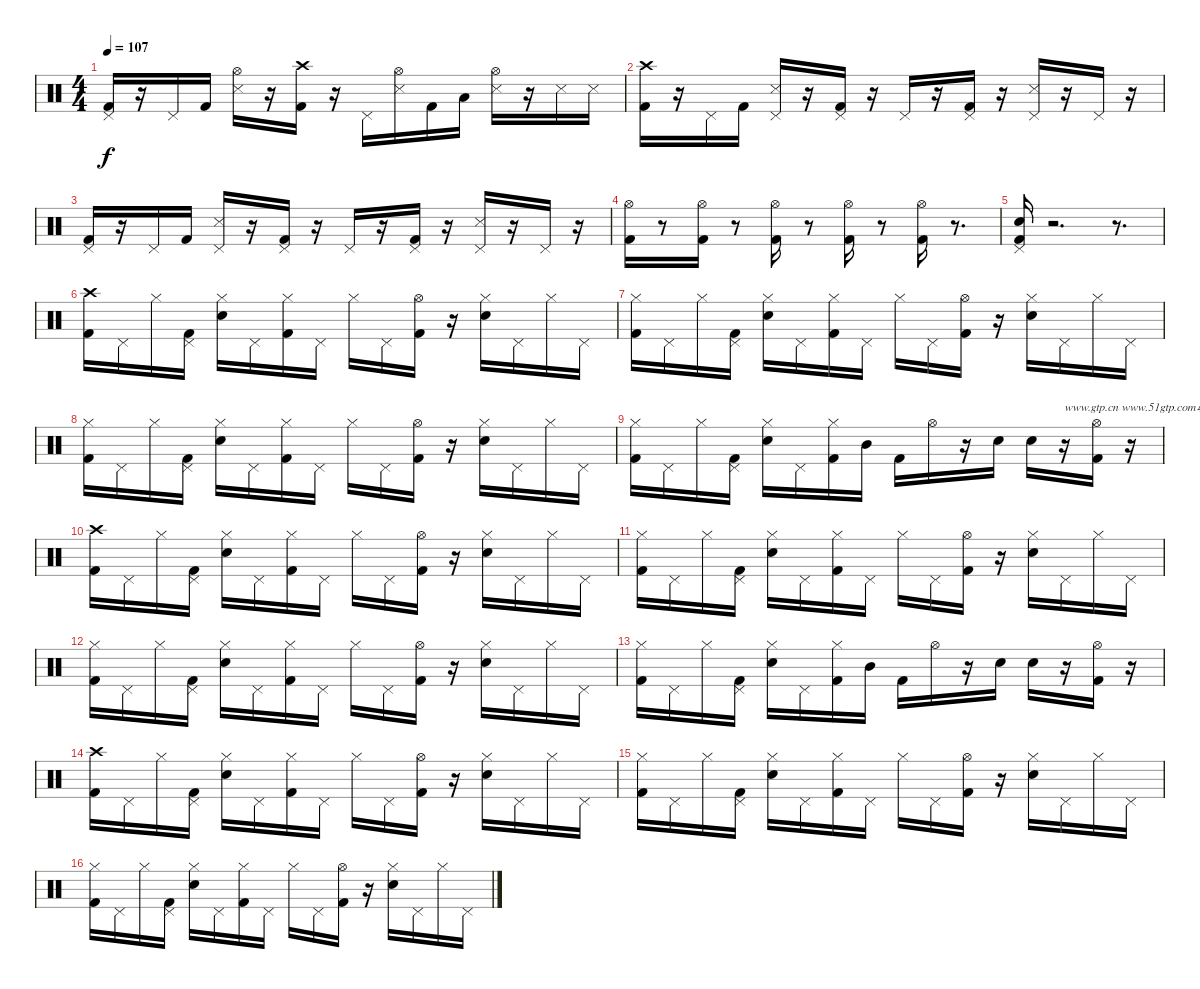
\track "" {instrument percussion}
\staff {score}
\articulation defaults
\ts (4 4)
\tempo 107
\clef neutral
\ks c
("Pedal Hi-Hat (hit)" "Kick (hit) 2").16{dy f} r.16 "Pedal Hi-Hat (hit)".16 "Kick (hit) 2".16 ("Hi-Hat (open)" "Snare (side stick) 3").16 r.16 ("Crash high (hit)" "Kick (hit) 2").16 r.16 "Pedal Hi-Hat (hit)".16 ("Hi-Hat (open)" "Snare (side stick) 3").16 "Kick (hit) 2".16 "Low Tom (hit)".16 ("Hi-Hat (open)" "Snare (side stick) 3").16 r.16 "Snare (side stick) 3".16 "Snare (side stick) 3".16 |
("Crash high (hit)" "Kick (hit) 2").16 r.16 "Pedal Hi-Hat (hit)".16 "Kick (hit) 2".16 ("Pedal Hi-Hat (hit)" "Snare (side stick) 3").16 r.16 ("Pedal Hi-Hat (hit)" "Kick (hit) 2").16 r.16 "Pedal Hi-Hat (hit)".16 r.16 ("Pedal Hi-Hat (hit)" "Kick (hit) 2").16 r.16 ("Pedal Hi-Hat (hit)" "Snare (side stick) 3").16 r.16 "Pedal Hi-Hat (hit)".16 r.16 |
("Pedal Hi-Hat (hit)" "Kick (hit) 2").16 r.16 "Pedal Hi-Hat (hit)".16 "Kick (hit) 2".16 ("Pedal Hi-Hat (hit)" "Snare (side stick) 3").16 r.16 ("Pedal Hi-Hat (hit)" "Kick (hit) 2").16 r.16 "Pedal Hi-Hat (hit)".16 r.16 ("Pedal Hi-Hat (hit)" "Kick (hit) 2").16 r.16 ("Pedal Hi-Hat (hit)" "Snare (side stick) 3").16 r.16 "Pedal Hi-Hat (hit)".16 r.16 |
("Hi-Hat (open)" "Kick (hit) 2").16 r.8 ("Hi-Hat (open)" "Kick (hit) 2").16 r.8 ("Hi-Hat (open)" "Kick (hit) 2").16 r.8 ("Hi-Hat (open)" "Kick (hit) 2").16 r.8 ("Hi-Hat (open)" "Kick (hit) 2").16 r.8{d} |
("Pedal Hi-Hat (hit)" "Electric Snare (hit)" "Kick (hit) 2").16 r.2{d} r.8{d} |
("Crash high (hit)" "Kick (hit) 2").16 "Pedal Hi-Hat (hit)".16 "Hi-Hat (closed)".16 ("Pedal Hi-Hat (hit)" "Kick (hit) 2").16 ("Hi-Hat (closed)" "Electric Snare (hit)").16 "Pedal Hi-Hat (hit)".16 ("Hi-Hat (closed)" "Kick (hit) 2").16 "Pedal Hi-Hat (hit)".16 "Hi-Hat (closed)".16 "Pedal Hi-Hat (hit)".16 ("Hi-Hat (open)" "Kick (hit) 2").16 r.16 ("Hi-Hat (closed)" "Electric Snare (hit)").16 "Pedal Hi-Hat (hit)".16 "Hi-Hat (closed)".16 "Pedal Hi-Hat (hit)".16 |
("Hi-Hat (closed)" "Kick (hit) 2").16 "Pedal Hi-Hat (hit)".16 "Hi-Hat (closed)".16 ("Pedal Hi-Hat (hit)" "Kick (hit) 2").16 ("Hi-Hat (closed)" "Electric Snare (hit)").16 "Pedal Hi-Hat (hit)".16 ("Hi-Hat (closed)" "Kick (hit) 2").16 "Pedal Hi-Hat (hit)".16 "Hi-Hat (closed)".16 "Pedal Hi-Hat (hit)".16 ("Hi-Hat (open)" "Kick (hit) 2").16 r.16 ("Hi-Hat (closed)" "Electric Snare (hit)").16 "Pedal Hi-Hat (hit)".16 "Hi-Hat (closed)".16 "Pedal Hi-Hat (hit)".16 |
("Hi-Hat (closed)" "Kick (hit) 2").16 "Pedal Hi-Hat (hit)".16 "Hi-Hat (closed)".16 ("Pedal Hi-Hat (hit)" "Kick (hit) 2").16 ("Hi-Hat (closed)" "Electric Snare (hit)").16 "Pedal Hi-Hat (hit)".16 ("Hi-Hat (closed)" "Kick (hit) 2").16 "Pedal Hi-Hat (hit)".16 "Hi-Hat (closed)".16 "Pedal Hi-Hat (hit)".16 ("Hi-Hat (open)" "Kick (hit) 2").16 r.16 ("Hi-Hat (closed)" "Electric Snare (hit)").16 "Pedal Hi-Hat (hit)".16 "Hi-Hat (closed)".16 "Pedal Hi-Hat (hit)".16 |
("Hi-Hat (closed)" "Kick (hit) 2").16 "Pedal Hi-Hat (hit)".16 "Hi-Hat (closed)".16 ("Pedal Hi-Hat (hit)" "Kick (hit) 2").16 ("Hi-Hat (closed)" "Electric Snare (hit)").16 "Pedal Hi-Hat (hit)".16 ("Hi-Hat (closed)" "Kick (hit) 2").16 "Mid Tom (hit)".16 "Kick (hit) 2".16 "Hi-Hat (open)".16 r.16 "Electric Snare (hit)".16 "Electric Snare (hit)".16 r.16{txt "www.gtp.cn www.51gtp.com联合为您提供优秀的GTP!"} ("Hi-Hat (open)" "Kick (hit) 2").16 r.16 |
("Crash high (hit)" "Kick (hit) 2").16 "Pedal Hi-Hat (hit)".16 "Hi-Hat (closed)".16 ("Pedal Hi-Hat (hit)" "Kick (hit) 2").16 ("Hi-Hat (closed)" "Electric Snare (hit)").16 "Pedal Hi-Hat (hit)".16 ("Hi-Hat (closed)" "Kick (hit) 2").16 "Pedal Hi-Hat (hit)".16 "Hi-Hat (closed)".16 "Pedal Hi-Hat (hit)".16 ("Hi-Hat (open)" "Kick (hit) 2").16 r.16 ("Hi-Hat (closed)" "Electric Snare (hit)").16 "Pedal Hi-Hat (hit)".16 "Hi-Hat (closed)".16 "Pedal Hi-Hat (hit)".16 |
("Hi-Hat (closed)" "Kick (hit) 2").16 "Pedal Hi-Hat (hit)".16 "Hi-Hat (closed)".16 ("Pedal Hi-Hat (hit)" "Kick (hit) 2").16 ("Hi-Hat (closed)" "Electric Snare (hit)").16 "Pedal Hi-Hat (hit)".16 ("Hi-Hat (closed)" "Kick (hit) 2").16 "Pedal Hi-Hat (hit)".16 "Hi-Hat (closed)".16 "Pedal Hi-Hat (hit)".16 ("Hi-Hat (open)" "Kick (hit) 2").16 r.16 ("Hi-Hat (closed)" "Electric Snare (hit)").16 "Pedal Hi-Hat (hit)".16 "Hi-Hat (closed)".16 "Pedal Hi-Hat (hit)".16 |
("Hi-Hat (closed)" "Kick (hit) 2").16 "Pedal Hi-Hat (hit)".16 "Hi-Hat (closed)".16 ("Pedal Hi-Hat (hit)" "Kick (hit) 2").16 ("Hi-Hat (closed)" "Electric Snare (hit)").16 "Pedal Hi-Hat (hit)".16 ("Hi-Hat (closed)" "Kick (hit) 2").16 "Pedal Hi-Hat (hit)".16 "Hi-Hat (closed)".16 "Pedal Hi-Hat (hit)".16 ("Hi-Hat (open)" "Kick (hit) 2").16 r.16 ("Hi-Hat (closed)" "Electric Snare (hit)").16 "Pedal Hi-Hat (hit)".16 "Hi-Hat (closed)".16 "Pedal Hi-Hat (hit)".16 |
("Hi-Hat (closed)" "Kick (hit) 2").16 "Pedal Hi-Hat (hit)".16 "Hi-Hat (closed)".16 ("Pedal Hi-Hat (hit)" "Kick (hit) 2").16 ("Hi-Hat (closed)" "Electric Snare (hit)").16 "Pedal Hi-Hat (hit)".16 ("Hi-Hat (closed)" "Kick (hit) 2").16 "Mid Tom (hit)".16 "Kick (hit) 2".16 "Hi-Hat (open)".16 r.16 "Electric Snare (hit)".16 "Electric Snare (hit)".16 r.16 ("Hi-Hat (open)" "Kick (hit) 2").16 r.16 |
("Crash high (hit)" "Kick (hit) 2").16 "Pedal Hi-Hat (hit)".16 "Hi-Hat (closed)".16 ("Pedal Hi-Hat (hit)" "Kick (hit) 2").16 ("Hi-Hat (closed)" "Electric Snare (hit)").16 "Pedal Hi-Hat (hit)".16 ("Hi-Hat (closed)" "Kick (hit) 2").16 "Pedal Hi-Hat (hit)".16 "Hi-Hat (closed)".16 "Pedal Hi-Hat (hit)".16 ("Hi-Hat (open)" "Kick (hit) 2").16 r.16 ("Hi-Hat (closed)" "Electric Snare (hit)").16 "Pedal Hi-Hat (hit)".16 "Hi-Hat (closed)".16 "Pedal Hi-Hat (hit)".16 |
("Hi-Hat (closed)" "Kick (hit) 2").16 "Pedal Hi-Hat (hit)".16 "Hi-Hat (closed)".16 ("Pedal Hi-Hat (hit)" "Kick (hit) 2").16 ("Hi-Hat (closed)" "Electric Snare (hit)").16 "Pedal Hi-Hat (hit)".16 ("Hi-Hat (closed)" "Kick (hit) 2").16 "Pedal Hi-Hat (hit)".16 "Hi-Hat (closed)".16 "Pedal Hi-Hat (hit)".16 ("Hi-Hat (open)" "Kick (hit) 2").16 r.16 ("Hi-Hat (closed)" "Electric Snare (hit)").16 "Pedal Hi-Hat (hit)".16 "Hi-Hat (closed)".16 "Pedal Hi-Hat (hit)".16 |
("Hi-Hat (closed)" "Kick (hit) 2").16 "Pedal Hi-Hat (hit)".16 "Hi-Hat (closed)".16 ("Pedal Hi-Hat (hit)" "Kick (hit) 2").16 ("Hi-Hat (closed)" "Electric Snare (hit)").16 "Pedal Hi-Hat (hit)".16 ("Hi-Hat (closed)" "Kick (hit) 2").16 "Pedal Hi-Hat (hit)".16 "Hi-Hat (closed)".16 "Pedal Hi-Hat (hit)".16 ("Hi-Hat (open)" "Kick (hit) 2").16 r.16 ("Hi-Hat (closed)" "Electric Snare (hit)").16 "Pedal Hi-Hat (hit)".16 "Hi-Hat (closed)".16 "Pedal Hi-Hat (hit)".16
